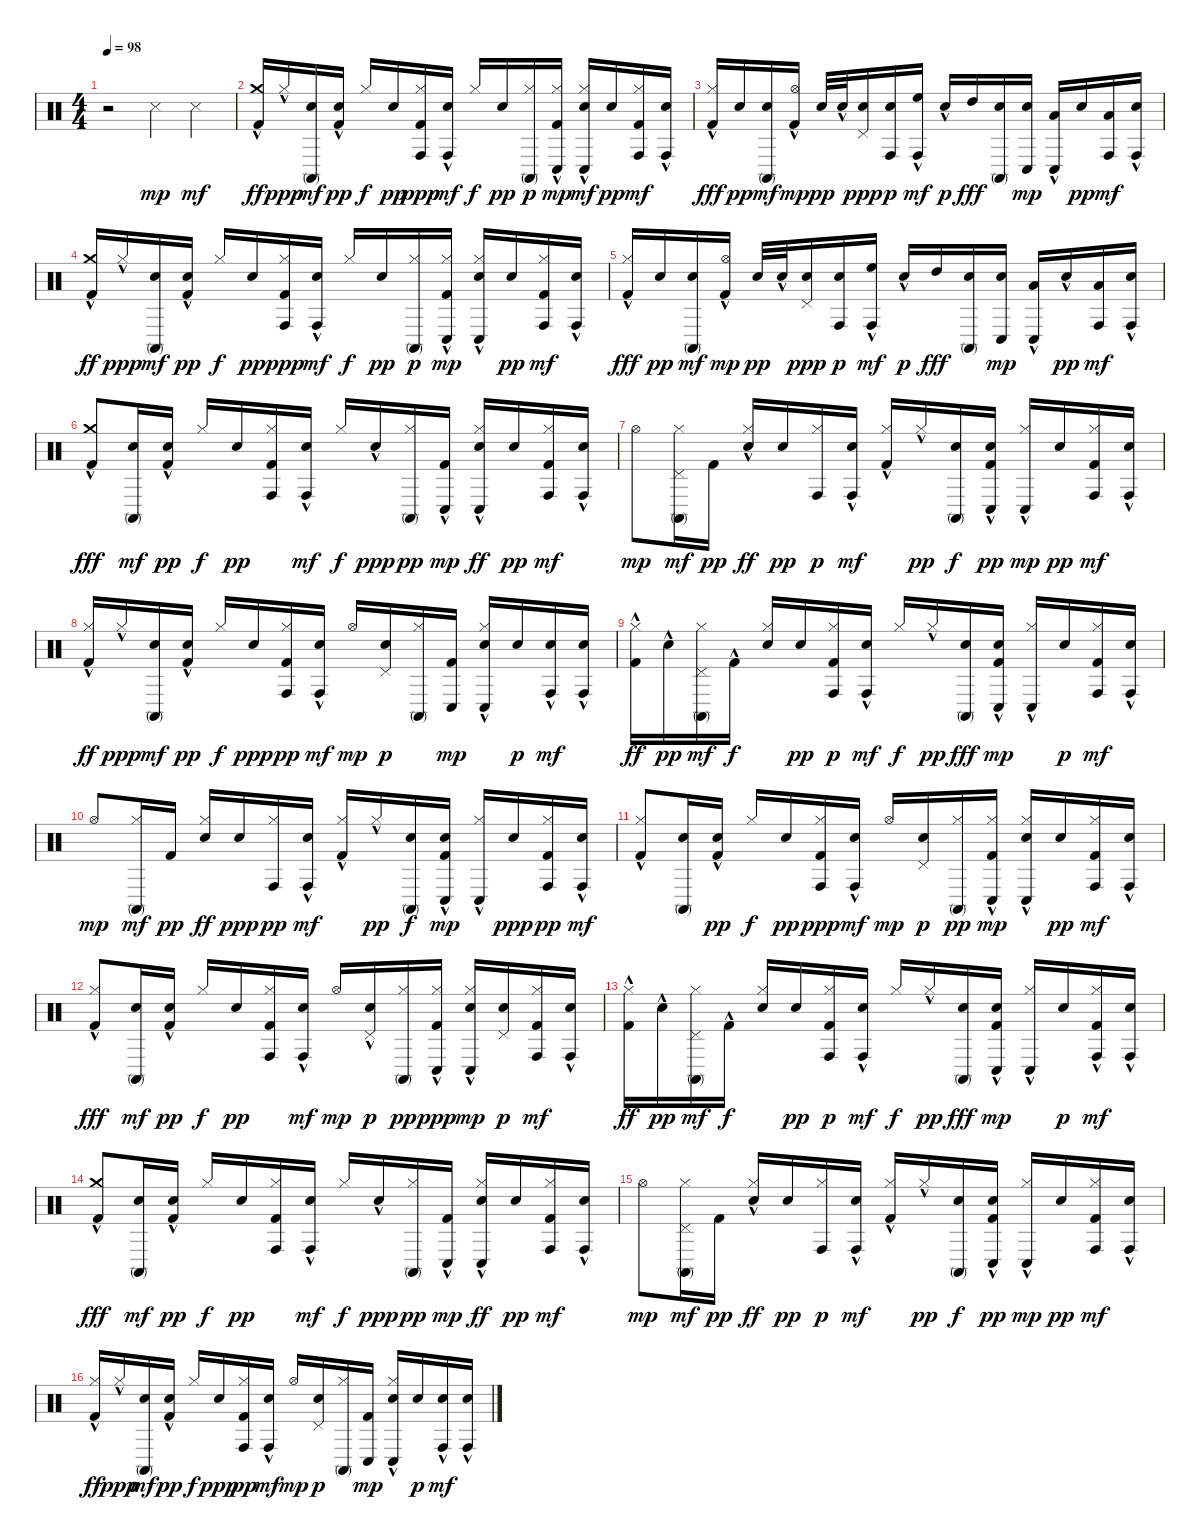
\track "" {instrument percussion}
\staff {score}
\articulation defaults
\ts (4 4)
\tempo 98
\clef neutral
\ks c
r.2{dy mp} "Snare (side stick) 3".4 "Snare (side stick) 3".4{dy mf} |
("Kick (hit) 2"{hac} "Crash medium (hit)").16{dy ff} "Hi-Hat (closed)"{hac}.16{dy ppp} ("Snare (hit) 2" "Conga high (mute)").16{dy mf} ("Kick (hit) 2"{hac} "Snare (hit) 2").16{dy pp} "Hi-Hat (closed)".16{dy f} "Snare (hit) 2".16{dy pp} ("Kick (hit) 2" "Hi-Hat (closed)" "Conga high (hit)").16{dy ppp} ("Snare (hit) 2" "Conga high (hit)"{hac}).16{dy mf} "Hi-Hat (closed)".16{dy f} "Snare (hit) 2".16{dy pp} ("Hi-Hat (closed)" "Conga high (mute)").16{dy p} ("Kick (hit) 2"{hac} "Hi-Hat (closed)" "Conga low (hit)").16{dy mp} ("Conga low (hit)"{hac} "Electric Snare (hit)" "Hi-Hat (closed)").16{dy mf} "Snare (hit) 2".16{dy pp} ("Kick (hit) 2" "Hi-Hat (closed)" "Conga high (hit)").16{dy mf} ("Snare (hit) 2" "Conga high (hit)"{hac}).16 |
("Kick (hit) 2"{hac} "Hi-Hat (closed)").16{dy fff} "Snare (hit) 2".16{dy pp} ("Snare (hit) 2" "Conga high (mute)").16{dy mf} ("Kick (hit) 2"{hac} "Hi-Hat (open)").16{dy mp} "Snare (hit) 2".32{dy pp} "Snare (hit) 2"{hac}.32 ("Electric Snare (hit)" "Pedal Hi-Hat (hit)").16{dy ppp} ("Snare (hit) 2" "Conga high (hit)").16{dy p} ("High Floor Tom (hit)" "Conga high (hit)"{hac}).16{dy mf} "Snare (hit) 2"{hac}.16{dy p} "High Tom (hit)".16{dy fff} ("Electric Snare (hit)" "Conga high (mute)").16 ("Snare (hit) 2" "Conga low (hit)").16{dy mp} ("Low Tom (hit)" "Conga low (hit)"{hac}).16 "Snare (hit) 2".16{dy pp} ("Low Floor Tom (hit)" "Conga high (hit)").16{dy mf} ("Electric Snare (hit)"{hac} "Conga high (hit)"{hac}).16 |
("Kick (hit) 2"{hac} "Crash medium (hit)").16{dy ff} "Hi-Hat (closed)"{hac}.16{dy ppp} ("Snare (hit) 2" "Conga high (mute)").16{dy mf} ("Kick (hit) 2"{hac} "Snare (hit) 2").16{dy pp} "Hi-Hat (closed)".16{dy f} "Snare (hit) 2".16{dy pp} ("Kick (hit) 2" "Hi-Hat (closed)" "Conga high (hit)").16{dy ppp} ("Snare (hit) 2" "Conga high (hit)"{hac}).16{dy mf} "Hi-Hat (closed)".16{dy f} "Snare (hit) 2".16{dy pp} ("Hi-Hat (closed)" "Conga high (mute)").16{dy p} ("Kick (hit) 2"{hac} "Hi-Hat (closed)" "Conga low (hit)").16{dy mp} ("Electric Snare (hit)" "Hi-Hat (closed)" "Conga low (hit)"{hac}).16 "Snare (hit) 2".16{dy pp} ("Kick (hit) 2" "Hi-Hat (closed)" "Conga high (hit)").16{dy mf} ("Snare (hit) 2" "Conga high (hit)"{hac}).16 |
("Kick (hit) 2"{hac} "Hi-Hat (closed)").16{dy fff} "Snare (hit) 2".16{dy pp} ("Snare (hit) 2" "Conga high (mute)").16{dy mf} ("Kick (hit) 2"{hac} "Hi-Hat (open)").16{dy mp} "Snare (hit) 2".32{dy pp} "Snare (hit) 2"{hac}.32 ("Electric Snare (hit)" "Pedal Hi-Hat (hit)").16{dy ppp} ("Snare (hit) 2" "Conga high (hit)").16{dy p} ("High Floor Tom (hit)" "Conga high (hit)"{hac}).16{dy mf} "Snare (hit) 2"{hac}.16{dy p} "High Tom (hit)".16{dy fff} ("Electric Snare (hit)" "Conga high (mute)").16 ("Snare (hit) 2" "Conga low (hit)").16{dy mp} ("Low Tom (hit)" "Conga low (hit)"{hac}).16 "Snare (hit) 2"{hac}.16{dy pp} ("Low Floor Tom (hit)" "Conga high (hit)").16{dy mf} ("Electric Snare (hit)"{hac} "Conga high (hit)"{hac}).16 |
("Kick (hit) 2"{hac} "Crash medium (hit)").8{dy fff} ("Electric Snare (hit)" "Conga high (mute)").16{dy mf} ("Kick (hit) 2"{hac} "Snare (hit) 2").16{dy pp} "Hi-Hat (closed)".16{dy f} "Snare (hit) 2".16{dy pp} ("Kick (hit) 2" "Hi-Hat (closed)" "Conga high (hit)").16 ("Snare (hit) 2" "Conga high (hit)"{hac}).16{dy mf} "Hi-Hat (closed)".16{dy f} "Snare (hit) 2"{hac}.16{dy ppp} ("Hi-Hat (closed)" "Conga high (mute)").16{dy pp} ("Kick (hit) 2"{hac} "Conga low (hit)").16{dy mp} ("Hi-Hat (closed)" "Conga low (hit)"{hac} "Snare (hit) 2").16{dy ff} "Snare (hit) 2".16{dy pp} ("Kick (hit) 2" "Hi-Hat (closed)" "Conga high (hit)").16{dy mf} ("Snare (hit) 2"{hac} "Conga high (hit)"{hac}).16 |
"Hi-Hat (open)".8{dy mp} ("Hi-Hat (closed)" "Pedal Hi-Hat (hit)" "Conga high (mute)").16{dy mf} "Kick (hit) 2".16{dy pp} ("Electric Snare (hit)"{hac} "Hi-Hat (closed)").16{dy ff} "Snare (hit) 2".16{dy pp} ("Hi-Hat (closed)" "Conga high (hit)").16{dy p} ("Snare (hit) 2"{hac} "Conga high (hit)"{hac}).16{dy mf} ("Kick (hit) 2"{hac} "Hi-Hat (closed)").16 "Hi-Hat (closed)"{hac}.16{dy pp} ("Snare (hit) 2" "Conga high (mute)").16{dy f} ("Conga low (hit)" "Kick (hit) 2"{hac} "Snare (hit) 2").16{dy pp} ("Hi-Hat (closed)" "Conga low (hit)"{hac}).16{dy mp} "Snare (hit) 2".16{dy pp} ("Kick (hit) 2" "Hi-Hat (closed)" "Conga high (hit)").16{dy mf} ("Snare (hit) 2" "Conga high (hit)"{hac}).16 |
("Kick (hit) 2"{hac} "Hi-Hat (closed)").16{dy ff} "Hi-Hat (closed)"{hac}.16{dy ppp} ("Electric Snare (hit)" "Conga high (mute)").16{dy mf} ("Kick (hit) 2"{hac} "Snare (hit) 2").16{dy pp} "Hi-Hat (closed)".16{dy f} "Snare (hit) 2".16{dy ppp} ("Conga high (hit)" "Kick (hit) 2" "Hi-Hat (closed)").16{dy pp} ("Electric Snare (hit)" "Conga high (hit)"{hac}).16{dy mf} "Hi-Hat (open)".16{dy mp} ("Snare (hit) 2" "Pedal Hi-Hat (hit)").16{dy p} ("Hi-Hat (closed)" "Conga high (mute)").16 ("Kick (hit) 2" "Conga low (hit)").16{dy mp} ("Electric Snare (hit)"{hac} "Hi-Hat (closed)" "Conga low (hit)"{hac}).16 "Snare (hit) 2".16{dy p} ("Snare (hit) 2"{hac} "Conga high (hit)").16{dy mf} ("Electric Snare (hit)" "Conga high (hit)"{hac}).16 |
("Kick (hit) 2"{hac} "Hi-Hat (closed)").16{dy ff} "Snare (hit) 2"{hac}.16{dy pp} ("Hi-Hat (closed)" "Pedal Hi-Hat (hit)" "Conga high (mute)").16{dy mf} "Kick (hit) 2"{hac}.16{dy f} ("Snare (hit) 2" "Hi-Hat (closed)").16 "Snare (hit) 2".16{dy pp} ("Conga high (hit)" "Kick (hit) 2" "Hi-Hat (closed)").16{dy p} ("Snare (hit) 2" "Conga high (hit)"{hac}).16{dy mf} "Hi-Hat (closed)".16{dy f} "Hi-Hat (closed)"{hac}.16{dy pp} ("Electric Snare (hit)" "Conga high (mute)").16{dy fff} ("Kick (hit) 2"{hac} "Snare (hit) 2" "Conga low (hit)").16{dy mp} ("Hi-Hat (closed)" "Conga low (hit)"{hac}).16 "Snare (hit) 2".16{dy p} ("Kick (hit) 2" "Hi-Hat (closed)" "Conga high (hit)").16{dy mf} ("Snare (hit) 2" "Conga high (hit)"{hac}).16 |
"Hi-Hat (open)".8{dy mp} ("Hi-Hat (closed)" "Conga high (mute)").16{dy mf} "Kick (hit) 2".16{dy pp} ("Snare (hit) 2" "Hi-Hat (closed)").16{dy ff} "Snare (hit) 2".16{dy ppp} ("Hi-Hat (closed)" "Conga high (hit)").16{dy pp} ("Snare (hit) 2" "Conga high (hit)"{hac}).16{dy mf} ("Kick (hit) 2"{hac} "Hi-Hat (closed)").16 "Hi-Hat (closed)"{hac}.16{dy pp} ("Electric Snare (hit)" "Conga high (mute)").16{dy f} ("Kick (hit) 2"{hac} "Snare (hit) 2" "Conga low (hit)").16{dy mp} ("Hi-Hat (closed)" "Conga low (hit)"{hac}).16 "Snare (hit) 2".16{dy ppp} ("Conga high (hit)" "Kick (hit) 2" "Hi-Hat (closed)").16{dy pp} ("Snare (hit) 2" "Conga high (hit)"{hac}).16{dy mf} |
("Kick (hit) 2"{hac} "Hi-Hat (closed)").8 ("Electric Snare (hit)" "Conga high (mute)").16 ("Kick (hit) 2"{hac} "Snare (hit) 2").16{dy pp} "Hi-Hat (closed)".16{dy f} "Snare (hit) 2".16{dy pp} ("Conga high (hit)" "Kick (hit) 2" "Hi-Hat (closed)").16{dy ppp} ("Electric Snare (hit)" "Conga high (hit)"{hac}).16{dy mf} "Hi-Hat (open)".16{dy mp} ("Snare (hit) 2" "Pedal Hi-Hat (hit)").16{dy p} ("Hi-Hat (closed)" "Conga high (mute)").16{dy pp} ("Kick (hit) 2"{hac} "Hi-Hat (closed)" "Conga low (hit)").16{dy mp} ("Electric Snare (hit)"{hac} "Hi-Hat (closed)" "Conga low (hit)"{hac}).16 "Snare (hit) 2".16{dy pp} ("Kick (hit) 2" "Hi-Hat (closed)" "Conga high (hit)").16{dy mf} ("Snare (hit) 2" "Conga high (hit)"{hac}).16 |
("Kick (hit) 2"{hac} "Hi-Hat (closed)").8{dy fff} ("Electric Snare (hit)" "Conga high (mute)").16{dy mf} ("Kick (hit) 2"{hac} "Snare (hit) 2").16{dy pp} "Hi-Hat (closed)".16{dy f} "Snare (hit) 2".16{dy pp} ("Conga high (hit)" "Kick (hit) 2" "Hi-Hat (closed)").16 ("Electric Snare (hit)" "Conga high (hit)"{hac}).16{dy mf} "Hi-Hat (open)".16{dy mp} ("Snare (hit) 2"{hac} "Pedal Hi-Hat (hit)").16{dy p} ("Hi-Hat (closed)" "Conga high (mute)").16{dy pp} ("Conga low (hit)" "Kick (hit) 2"{hac} "Hi-Hat (closed)").16{dy ppp} ("Snare (hit) 2" "Hi-Hat (closed)" "Conga low (hit)"{hac}).16{dy mp} ("Snare (hit) 2" "Pedal Hi-Hat (hit)").16{dy p} ("Kick (hit) 2" "Hi-Hat (closed)" "Conga high (hit)").16{dy mf} ("Electric Snare (hit)" "Conga high (hit)"{hac}).16 |
("Kick (hit) 2"{hac} "Hi-Hat (closed)").16{dy ff} "Snare (hit) 2"{hac}.16{dy pp} ("Hi-Hat (closed)" "Pedal Hi-Hat (hit)" "Conga high (mute)").16{dy mf} "Kick (hit) 2"{hac}.16{dy f} ("Snare (hit) 2" "Hi-Hat (closed)").16 "Snare (hit) 2".16{dy pp} ("Conga high (hit)" "Kick (hit) 2" "Hi-Hat (closed)").16{dy p} ("Snare (hit) 2" "Conga high (hit)"{hac}).16{dy mf} "Hi-Hat (closed)".16{dy f} "Hi-Hat (closed)"{hac}.16{dy pp} ("Electric Snare (hit)" "Conga high (mute)").16{dy fff} ("Kick (hit) 2"{hac} "Snare (hit) 2" "Conga low (hit)").16{dy mp} ("Hi-Hat (closed)" "Conga low (hit)"{hac}).16 "Snare (hit) 2".16{dy p} ("Kick (hit) 2" "Hi-Hat (closed)"{hac} "Conga high (hit)").16{dy mf} ("Snare (hit) 2" "Conga high (hit)"{hac}).16 |
("Kick (hit) 2"{hac} "Crash medium (hit)").8{dy fff} ("Electric Snare (hit)" "Conga high (mute)").16{dy mf} ("Kick (hit) 2"{hac} "Snare (hit) 2").16{dy pp} "Hi-Hat (closed)".16{dy f} "Snare (hit) 2".16{dy pp} ("Kick (hit) 2" "Hi-Hat (closed)" "Conga high (hit)").16 ("Snare (hit) 2" "Conga high (hit)"{hac}).16{dy mf} "Hi-Hat (closed)".16{dy f} "Snare (hit) 2"{hac}.16{dy ppp} ("Hi-Hat (closed)" "Conga high (mute)").16{dy pp} ("Kick (hit) 2"{hac} "Conga low (hit)").16{dy mp} ("Hi-Hat (closed)" "Conga low (hit)"{hac} "Snare (hit) 2").16{dy ff} "Snare (hit) 2".16{dy pp} ("Kick (hit) 2" "Hi-Hat (closed)" "Conga high (hit)").16{dy mf} ("Snare (hit) 2"{hac} "Conga high (hit)"{hac}).16 |
"Hi-Hat (open)".8{dy mp} ("Hi-Hat (closed)" "Pedal Hi-Hat (hit)" "Conga high (mute)").16{dy mf} "Kick (hit) 2".16{dy pp} ("Electric Snare (hit)"{hac} "Hi-Hat (closed)").16{dy ff} "Snare (hit) 2".16{dy pp} ("Hi-Hat (closed)" "Conga high (hit)").16{dy p} ("Snare (hit) 2"{hac} "Conga high (hit)"{hac}).16{dy mf} ("Kick (hit) 2"{hac} "Hi-Hat (closed)").16 "Hi-Hat (closed)"{hac}.16{dy pp} ("Snare (hit) 2" "Conga high (mute)").16{dy f} ("Conga low (hit)" "Kick (hit) 2"{hac} "Snare (hit) 2").16{dy pp} ("Hi-Hat (closed)" "Conga low (hit)"{hac}).16{dy mp} "Snare (hit) 2".16{dy pp} ("Kick (hit) 2" "Hi-Hat (closed)" "Conga high (hit)").16{dy mf} ("Snare (hit) 2" "Conga high (hit)"{hac}).16 |
("Kick (hit) 2"{hac} "Hi-Hat (closed)").16{dy ff} "Hi-Hat (closed)"{hac}.16{dy ppp} ("Electric Snare (hit)" "Conga high (mute)").16{dy mf} ("Kick (hit) 2"{hac} "Snare (hit) 2").16{dy pp} "Hi-Hat (closed)".16{dy f} "Snare (hit) 2".16{dy ppp} ("Conga high (hit)" "Kick (hit) 2" "Hi-Hat (closed)").16{dy pp} ("Electric Snare (hit)" "Conga high (hit)"{hac}).16{dy mf} "Hi-Hat (open)".16{dy mp} ("Snare (hit) 2" "Pedal Hi-Hat (hit)").16{dy p} ("Hi-Hat (closed)" "Conga high (mute)").16 ("Kick (hit) 2" "Conga low (hit)").16{dy mp} ("Electric Snare (hit)"{hac} "Hi-Hat (closed)" "Conga low (hit)"{hac}).16 "Snare (hit) 2".16{dy p} ("Snare (hit) 2"{hac} "Conga high (hit)").16{dy mf} ("Electric Snare (hit)" "Conga high (hit)"{hac}).16
